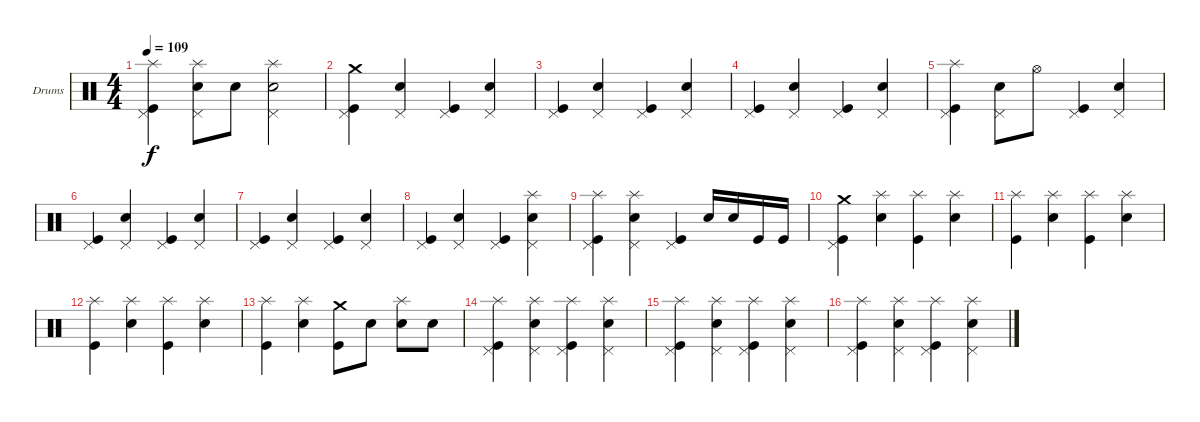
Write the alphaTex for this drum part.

\bracketExtendMode groupsimilarinstruments
\firstSystemTrackNameOrientation horizontal
\otherSystemsTrackNameOrientation horizontal
\track ("Drumkit" "Drums") {instrument percussion}
\staff {score}
\articulation defaults
\ts (4 4)
\tempo 109
\clef neutral
\ks c
("Splash (hit)" "Pedal Hi-Hat (hit)" "Kick (hit)").4{dy f} ("Splash (hit)" "Pedal Hi-Hat (hit)" "Snare (hit) 2").8 "Snare (hit) 2".8 ("Splash (hit)" "Pedal Hi-Hat (hit)" "Snare (hit) 2").2 |
("Crash medium (hit)" "Pedal Hi-Hat (hit)" "Kick (hit)").4 ("Pedal Hi-Hat (hit)" "Snare (hit) 2").4 ("Pedal Hi-Hat (hit)" "Kick (hit)").4 ("Pedal Hi-Hat (hit)" "Snare (hit) 2").4 |
("Pedal Hi-Hat (hit)" "Kick (hit)").4 ("Pedal Hi-Hat (hit)" "Snare (hit) 2").4 ("Pedal Hi-Hat (hit)" "Kick (hit)").4 ("Pedal Hi-Hat (hit)" "Snare (hit) 2").4 |
("Pedal Hi-Hat (hit)" "Kick (hit)").4 ("Pedal Hi-Hat (hit)" "Snare (hit) 2").4 ("Pedal Hi-Hat (hit)" "Kick (hit)").4 ("Pedal Hi-Hat (hit)" "Snare (hit) 2").4 |
("Splash (hit)" "Pedal Hi-Hat (hit)" "Kick (hit)").4 ("Pedal Hi-Hat (hit)" "Snare (hit) 2").8 "Hi-Hat (open)".8 ("Pedal Hi-Hat (hit)" "Kick (hit)").4 ("Pedal Hi-Hat (hit)" "Snare (hit) 2").4 |
("Pedal Hi-Hat (hit)" "Kick (hit)").4 ("Pedal Hi-Hat (hit)" "Snare (hit) 2").4 ("Pedal Hi-Hat (hit)" "Kick (hit)").4 ("Pedal Hi-Hat (hit)" "Snare (hit) 2").4 |
("Pedal Hi-Hat (hit)" "Kick (hit)").4 ("Pedal Hi-Hat (hit)" "Snare (hit) 2").4 ("Pedal Hi-Hat (hit)" "Kick (hit)").4 ("Pedal Hi-Hat (hit)" "Snare (hit) 2").4 |
("Pedal Hi-Hat (hit)" "Kick (hit)").4 ("Pedal Hi-Hat (hit)" "Snare (hit) 2").4 ("Pedal Hi-Hat (hit)" "Kick (hit)").4 ("Splash (hit)" "Pedal Hi-Hat (hit)" "Snare (hit) 2").4 |
("Splash (hit)" "Pedal Hi-Hat (hit)" "Kick (hit)").4 ("Splash (hit)" "Pedal Hi-Hat (hit)" "Snare (hit) 2").4 ("Pedal Hi-Hat (hit)" "Kick (hit)").4 "Snare (hit) 2".16 "Snare (hit) 2".16 "Kick (hit)".16 "Kick (hit)".16 |
("Crash medium (hit)" "Pedal Hi-Hat (hit)" "Kick (hit)").4 ("Splash (hit)" "Snare (hit) 2").4 ("Splash (hit)" "Kick (hit)").4 ("Splash (hit)" "Snare (hit) 2").4 |
("Splash (hit)" "Kick (hit)").4 ("Splash (hit)" "Snare (hit) 2").4 ("Splash (hit)" "Kick (hit)").4 ("Splash (hit)" "Snare (hit) 2").4 |
("Splash (hit)" "Kick (hit)").4 ("Splash (hit)" "Snare (hit) 2").4 ("Splash (hit)" "Kick (hit)").4 ("Splash (hit)" "Snare (hit) 2").4 |
("Splash (hit)" "Kick (hit)").4 ("Splash (hit)" "Snare (hit) 2").4 ("Crash medium (hit)" "Kick (hit)").8 "Snare (hit) 2".8 ("Splash (hit)" "Snare (hit) 2").8 "Snare (hit) 2".8 |
("Splash (hit)" "Pedal Hi-Hat (hit)" "Kick (hit)").4 ("Splash (hit)" "Pedal Hi-Hat (hit)" "Snare (hit) 2").4 ("Splash (hit)" "Pedal Hi-Hat (hit)" "Kick (hit)").4 ("Splash (hit)" "Pedal Hi-Hat (hit)" "Snare (hit) 2").4 |
("Splash (hit)" "Pedal Hi-Hat (hit)" "Kick (hit)").4 ("Splash (hit)" "Pedal Hi-Hat (hit)" "Snare (hit) 2").4 ("Splash (hit)" "Pedal Hi-Hat (hit)" "Kick (hit)").4 ("Splash (hit)" "Pedal Hi-Hat (hit)" "Snare (hit) 2").4 |
("Splash (hit)" "Pedal Hi-Hat (hit)" "Kick (hit)").4 ("Splash (hit)" "Pedal Hi-Hat (hit)" "Snare (hit) 2").4 ("Splash (hit)" "Pedal Hi-Hat (hit)" "Kick (hit)").4 ("Splash (hit)" "Pedal Hi-Hat (hit)" "Snare (hit) 2").4
